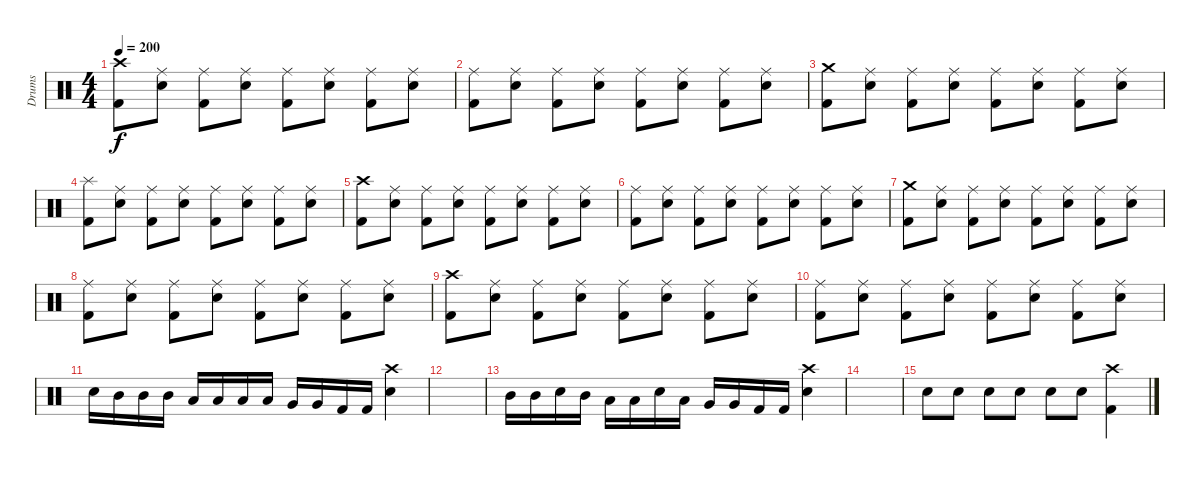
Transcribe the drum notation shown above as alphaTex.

\track ("Drums" "Drums") {instrument percussion}
\staff {score}
\articulation defaults
\ts (4 4)
\tempo 200
\clef neutral
\ks c
("Crash high (hit)" "Kick (hit) 2").8{dy f} ("Ride (middle)" "Electric Snare (hit)").8 ("Ride (middle)" "Kick (hit) 2").8 ("Ride (middle)" "Electric Snare (hit)").8 ("Ride (middle)" "Kick (hit) 2").8 ("Ride (middle)" "Electric Snare (hit)").8 ("Ride (middle)" "Kick (hit) 2").8 ("Ride (middle)" "Electric Snare (hit)").8 |
("Ride (middle)" "Kick (hit) 2").8 ("Ride (middle)" "Electric Snare (hit)").8 ("Ride (middle)" "Kick (hit) 2").8 ("Ride (middle)" "Electric Snare (hit)").8 ("Ride (middle)" "Kick (hit) 2").8 ("Ride (middle)" "Electric Snare (hit)").8 ("Ride (middle)" "Kick (hit) 2").8 ("Ride (middle)" "Electric Snare (hit)").8 |
("Crash medium (hit)" "Kick (hit) 2").8 ("Ride (middle)" "Electric Snare (hit)").8 ("Ride (middle)" "Kick (hit) 2").8 ("Ride (middle)" "Electric Snare (hit)").8 ("Ride (middle)" "Kick (hit) 2").8 ("Ride (middle)" "Electric Snare (hit)").8 ("Ride (middle)" "Kick (hit) 2").8 ("Ride (middle)" "Electric Snare (hit)").8 |
("Splash (hit)" "Kick (hit) 2").8 ("Ride (middle)" "Electric Snare (hit)").8 ("Ride (middle)" "Kick (hit) 2").8 ("Ride (middle)" "Electric Snare (hit)").8 ("Ride (middle)" "Kick (hit) 2").8 ("Ride (middle)" "Electric Snare (hit)").8 ("Ride (middle)" "Kick (hit) 2").8 ("Ride (middle)" "Electric Snare (hit)").8 |
("Crash high (hit)" "Kick (hit) 2").8 ("Ride (middle)" "Electric Snare (hit)").8 ("Ride (middle)" "Kick (hit) 2").8 ("Ride (middle)" "Electric Snare (hit)").8 ("Ride (middle)" "Kick (hit) 2").8 ("Ride (middle)" "Electric Snare (hit)").8 ("Ride (middle)" "Kick (hit) 2").8 ("Ride (middle)" "Electric Snare (hit)").8 |
("Ride (middle)" "Kick (hit) 2").8 ("Ride (middle)" "Electric Snare (hit)").8 ("Ride (middle)" "Kick (hit) 2").8 ("Ride (middle)" "Electric Snare (hit)").8 ("Ride (middle)" "Kick (hit) 2").8 ("Ride (middle)" "Electric Snare (hit)").8 ("Ride (middle)" "Kick (hit) 2").8 ("Ride (middle)" "Electric Snare (hit)").8 |
("Crash medium (hit)" "Kick (hit) 2").8 ("Ride (middle)" "Electric Snare (hit)").8 ("Ride (middle)" "Kick (hit) 2").8 ("Ride (middle)" "Electric Snare (hit)").8 ("Ride (middle)" "Kick (hit) 2").8 ("Ride (middle)" "Electric Snare (hit)").8 ("Ride (middle)" "Kick (hit) 2").8 ("Ride (middle)" "Electric Snare (hit)").8 |
("Ride (middle)" "Kick (hit) 2").8 ("Ride (middle)" "Electric Snare (hit)").8 ("Ride (middle)" "Kick (hit) 2").8 ("Ride (middle)" "Electric Snare (hit)").8 ("Ride (middle)" "Kick (hit) 2").8 ("Ride (middle)" "Electric Snare (hit)").8 ("Ride (middle)" "Kick (hit) 2").8 ("Ride (middle)" "Electric Snare (hit)").8 |
("Crash high (hit)" "Kick (hit) 2").8 ("Ride (middle)" "Electric Snare (hit)").8 ("Ride (middle)" "Kick (hit) 2").8 ("Ride (middle)" "Electric Snare (hit)").8 ("Ride (middle)" "Kick (hit) 2").8 ("Ride (middle)" "Electric Snare (hit)").8 ("Ride (middle)" "Kick (hit) 2").8 ("Ride (middle)" "Electric Snare (hit)").8 |
("Ride (middle)" "Kick (hit) 2").8 ("Ride (middle)" "Electric Snare (hit)").8 ("Ride (middle)" "Kick (hit) 2").8 ("Ride (middle)" "Electric Snare (hit)").8 ("Ride (middle)" "Kick (hit) 2").8 ("Ride (middle)" "Electric Snare (hit)").8 ("Ride (middle)" "Kick (hit) 2").8 ("Ride (middle)" "Electric Snare (hit)").8 |
"Electric Snare (hit)".16 "Mid Tom (hit)".16 "Mid Tom (hit)".16 "Mid Tom (hit)".16 "Low Tom (hit)".16 "Low Tom (hit)".16 "Low Tom (hit)".16 "Low Tom (hit)".16 "Very Low Tom (hit)".16 "Very Low Tom (hit)".16 "Kick (hit) 2".16 "Kick (hit) 2".16 ("Crash high (hit)" "Electric Snare (hit)").4 |
|
"Mid Tom (hit)".16 "Mid Tom (hit)".16 "Electric Snare (hit)".16 "Mid Tom (hit)".16 "Low Tom (hit)".16 "Low Tom (hit)".16 "Electric Snare (hit)".16 "Low Tom (hit)".16 "Very Low Tom (hit)".16 "Very Low Tom (hit)".16 "Kick (hit) 2".16 "Kick (hit) 2".16 ("Crash high (hit)" "Electric Snare (hit)").4 |
|
"Electric Snare (hit)".8 "Electric Snare (hit)".8 "Electric Snare (hit)".8 "Electric Snare (hit)".8 "Electric Snare (hit)".8 "Electric Snare (hit)".8 ("Crash high (hit)" "Kick (hit) 2").4
